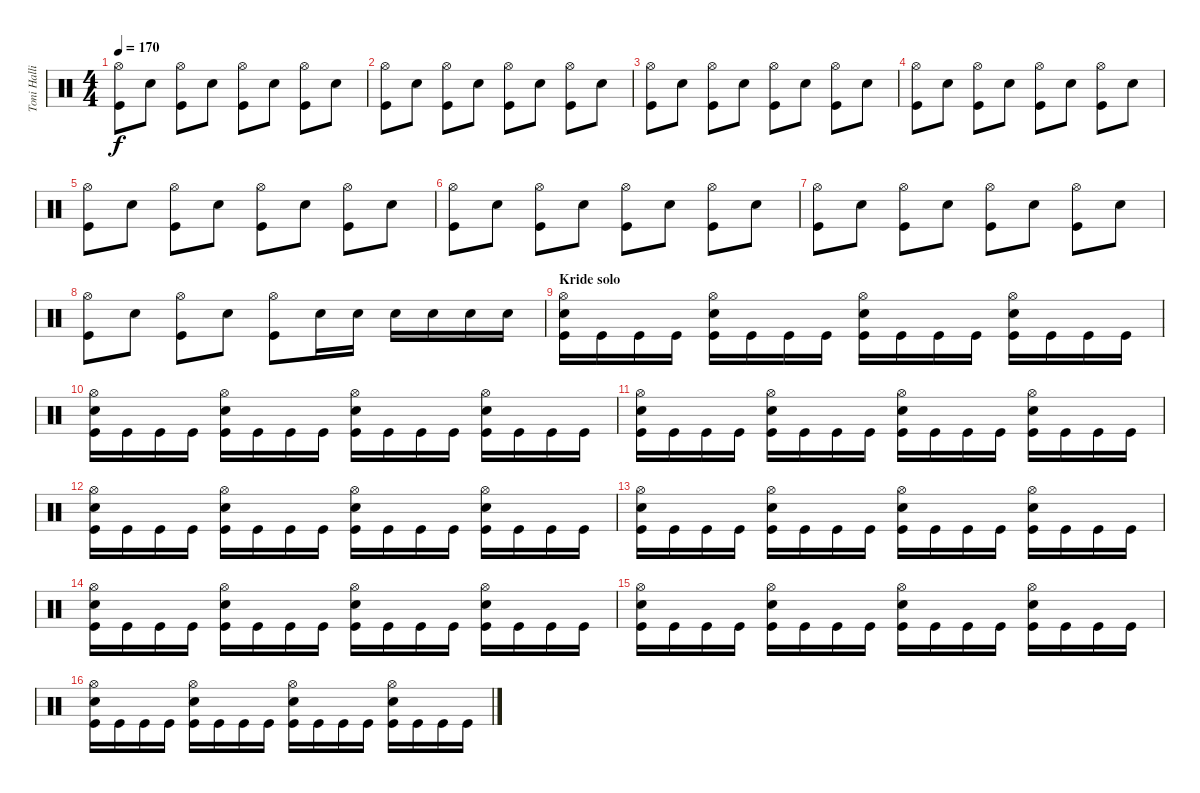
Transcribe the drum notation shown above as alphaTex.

\track ("Toni Hallio" "Toni Halli") {instrument percussion}
\staff {score}
\articulation defaults
\ts (4 4)
\tempo 170
\clef neutral
\ks c
("Hi-Hat (open)" "Kick (hit)").8{dy f} "Snare (hit) 2".8 ("Hi-Hat (open)" "Kick (hit)").8 "Snare (hit) 2".8 ("Hi-Hat (open)" "Kick (hit)").8 "Snare (hit) 2".8 ("Hi-Hat (open)" "Kick (hit)").8 "Snare (hit) 2".8 |
("Hi-Hat (open)" "Kick (hit)").8 "Snare (hit) 2".8 ("Hi-Hat (open)" "Kick (hit)").8 "Snare (hit) 2".8 ("Hi-Hat (open)" "Kick (hit)").8 "Snare (hit) 2".8 ("Hi-Hat (open)" "Kick (hit)").8 "Snare (hit) 2".8 |
("Hi-Hat (open)" "Kick (hit)").8 "Snare (hit) 2".8 ("Hi-Hat (open)" "Kick (hit)").8 "Snare (hit) 2".8 ("Hi-Hat (open)" "Kick (hit)").8 "Snare (hit) 2".8 ("Hi-Hat (open)" "Kick (hit)").8 "Snare (hit) 2".8 |
("Hi-Hat (open)" "Kick (hit)").8 "Snare (hit) 2".8 ("Hi-Hat (open)" "Kick (hit)").8 "Snare (hit) 2".8 ("Hi-Hat (open)" "Kick (hit)").8 "Snare (hit) 2".8 ("Hi-Hat (open)" "Kick (hit)").8 "Snare (hit) 2".8 |
("Hi-Hat (open)" "Kick (hit)").8 "Snare (hit) 2".8 ("Hi-Hat (open)" "Kick (hit)").8 "Snare (hit) 2".8 ("Hi-Hat (open)" "Kick (hit)").8 "Snare (hit) 2".8 ("Hi-Hat (open)" "Kick (hit)").8 "Snare (hit) 2".8 |
("Hi-Hat (open)" "Kick (hit)").8 "Snare (hit) 2".8 ("Hi-Hat (open)" "Kick (hit)").8 "Snare (hit) 2".8 ("Hi-Hat (open)" "Kick (hit)").8 "Snare (hit) 2".8 ("Hi-Hat (open)" "Kick (hit)").8 "Snare (hit) 2".8 |
("Hi-Hat (open)" "Kick (hit)").8 "Snare (hit) 2".8 ("Hi-Hat (open)" "Kick (hit)").8 "Snare (hit) 2".8 ("Hi-Hat (open)" "Kick (hit)").8 "Snare (hit) 2".8 ("Hi-Hat (open)" "Kick (hit)").8 "Snare (hit) 2".8 |
("Hi-Hat (open)" "Kick (hit)").8 "Snare (hit) 2".8 ("Hi-Hat (open)" "Kick (hit)").8 "Snare (hit) 2".8 ("Hi-Hat (open)" "Kick (hit)").8 "Snare (hit) 2".16 "Snare (hit) 2".16 "Snare (hit) 2".16 "Snare (hit) 2".16 "Snare (hit) 2".16 "Snare (hit) 2".16 |
\section ("" "Kride solo")
("Hi-Hat (open)" "Snare (hit) 2" "Kick (hit)").16 "Kick (hit)".16 "Kick (hit)".16 "Kick (hit)".16 ("Hi-Hat (open)" "Snare (hit) 2" "Kick (hit)").16 "Kick (hit)".16 "Kick (hit)".16 "Kick (hit)".16 ("Hi-Hat (open)" "Snare (hit) 2" "Kick (hit)").16 "Kick (hit)".16 "Kick (hit)".16 "Kick (hit)".16 ("Hi-Hat (open)" "Snare (hit) 2" "Kick (hit)").16 "Kick (hit)".16 "Kick (hit)".16 "Kick (hit)".16 |
("Hi-Hat (open)" "Snare (hit) 2" "Kick (hit)").16 "Kick (hit)".16 "Kick (hit)".16 "Kick (hit)".16 ("Hi-Hat (open)" "Snare (hit) 2" "Kick (hit)").16 "Kick (hit)".16 "Kick (hit)".16 "Kick (hit)".16 ("Hi-Hat (open)" "Snare (hit) 2" "Kick (hit)").16 "Kick (hit)".16 "Kick (hit)".16 "Kick (hit)".16 ("Hi-Hat (open)" "Snare (hit) 2" "Kick (hit)").16 "Kick (hit)".16 "Kick (hit)".16 "Kick (hit)".16 |
("Hi-Hat (open)" "Snare (hit) 2" "Kick (hit)").16 "Kick (hit)".16 "Kick (hit)".16 "Kick (hit)".16 ("Hi-Hat (open)" "Snare (hit) 2" "Kick (hit)").16 "Kick (hit)".16 "Kick (hit)".16 "Kick (hit)".16 ("Hi-Hat (open)" "Snare (hit) 2" "Kick (hit)").16 "Kick (hit)".16 "Kick (hit)".16 "Kick (hit)".16 ("Hi-Hat (open)" "Snare (hit) 2" "Kick (hit)").16 "Kick (hit)".16 "Kick (hit)".16 "Kick (hit)".16 |
("Hi-Hat (open)" "Snare (hit) 2" "Kick (hit)").16 "Kick (hit)".16 "Kick (hit)".16 "Kick (hit)".16 ("Hi-Hat (open)" "Snare (hit) 2" "Kick (hit)").16 "Kick (hit)".16 "Kick (hit)".16 "Kick (hit)".16 ("Hi-Hat (open)" "Snare (hit) 2" "Kick (hit)").16 "Kick (hit)".16 "Kick (hit)".16 "Kick (hit)".16 ("Hi-Hat (open)" "Snare (hit) 2" "Kick (hit)").16 "Kick (hit)".16 "Kick (hit)".16 "Kick (hit)".16 |
("Hi-Hat (open)" "Snare (hit) 2" "Kick (hit)").16 "Kick (hit)".16 "Kick (hit)".16 "Kick (hit)".16 ("Hi-Hat (open)" "Snare (hit) 2" "Kick (hit)").16 "Kick (hit)".16 "Kick (hit)".16 "Kick (hit)".16 ("Hi-Hat (open)" "Snare (hit) 2" "Kick (hit)").16 "Kick (hit)".16 "Kick (hit)".16 "Kick (hit)".16 ("Hi-Hat (open)" "Snare (hit) 2" "Kick (hit)").16 "Kick (hit)".16 "Kick (hit)".16 "Kick (hit)".16 |
("Hi-Hat (open)" "Snare (hit) 2" "Kick (hit)").16 "Kick (hit)".16 "Kick (hit)".16 "Kick (hit)".16 ("Hi-Hat (open)" "Snare (hit) 2" "Kick (hit)").16 "Kick (hit)".16 "Kick (hit)".16 "Kick (hit)".16 ("Hi-Hat (open)" "Snare (hit) 2" "Kick (hit)").16 "Kick (hit)".16 "Kick (hit)".16 "Kick (hit)".16 ("Hi-Hat (open)" "Snare (hit) 2" "Kick (hit)").16 "Kick (hit)".16 "Kick (hit)".16 "Kick (hit)".16 |
("Hi-Hat (open)" "Snare (hit) 2" "Kick (hit)").16 "Kick (hit)".16 "Kick (hit)".16 "Kick (hit)".16 ("Hi-Hat (open)" "Snare (hit) 2" "Kick (hit)").16 "Kick (hit)".16 "Kick (hit)".16 "Kick (hit)".16 ("Hi-Hat (open)" "Snare (hit) 2" "Kick (hit)").16 "Kick (hit)".16 "Kick (hit)".16 "Kick (hit)".16 ("Hi-Hat (open)" "Snare (hit) 2" "Kick (hit)").16 "Kick (hit)".16 "Kick (hit)".16 "Kick (hit)".16 |
("Hi-Hat (open)" "Snare (hit) 2" "Kick (hit)").16 "Kick (hit)".16 "Kick (hit)".16 "Kick (hit)".16 ("Hi-Hat (open)" "Snare (hit) 2" "Kick (hit)").16 "Kick (hit)".16 "Kick (hit)".16 "Kick (hit)".16 ("Hi-Hat (open)" "Snare (hit) 2" "Kick (hit)").16 "Kick (hit)".16 "Kick (hit)".16 "Kick (hit)".16 ("Hi-Hat (open)" "Snare (hit) 2" "Kick (hit)").16 "Kick (hit)".16 "Kick (hit)".16 "Kick (hit)".16
